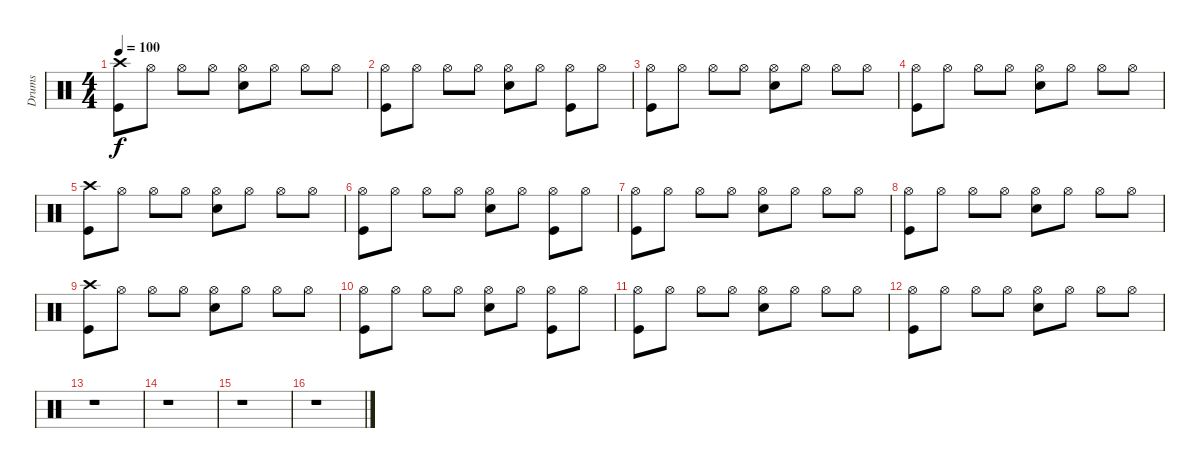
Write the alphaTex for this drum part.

\track ("Drums" "Drums") {instrument percussion}
\staff {score}
\articulation defaults
\ts (4 4)
\tempo 100
\clef neutral
\ks c
("Crash high (hit)" "Kick (hit)").8{dy f} "Hi-Hat (open)".8 "Hi-Hat (open)".8 "Hi-Hat (open)".8 ("Hi-Hat (open)" "Snare (hit) 2").8 "Hi-Hat (open)".8 "Hi-Hat (open)".8 "Hi-Hat (open)".8 |
("Hi-Hat (open)" "Kick (hit)").8 "Hi-Hat (open)".8 "Hi-Hat (open)".8 "Hi-Hat (open)".8 ("Hi-Hat (open)" "Snare (hit) 2").8 "Hi-Hat (open)".8 ("Hi-Hat (open)" "Kick (hit)").8 "Hi-Hat (open)".8 |
("Hi-Hat (open)" "Kick (hit)").8 "Hi-Hat (open)".8 "Hi-Hat (open)".8 "Hi-Hat (open)".8 ("Hi-Hat (open)" "Snare (hit) 2").8 "Hi-Hat (open)".8 "Hi-Hat (open)".8 "Hi-Hat (open)".8 |
("Hi-Hat (open)" "Kick (hit)").8 "Hi-Hat (open)".8 "Hi-Hat (open)".8 "Hi-Hat (open)".8 ("Hi-Hat (open)" "Snare (hit) 2").8 "Hi-Hat (open)".8 "Hi-Hat (open)".8 "Hi-Hat (open)".8 |
("Crash high (hit)" "Kick (hit)").8 "Hi-Hat (open)".8 "Hi-Hat (open)".8 "Hi-Hat (open)".8 ("Hi-Hat (open)" "Snare (hit) 2").8 "Hi-Hat (open)".8 "Hi-Hat (open)".8 "Hi-Hat (open)".8 |
("Hi-Hat (open)" "Kick (hit)").8 "Hi-Hat (open)".8 "Hi-Hat (open)".8 "Hi-Hat (open)".8 ("Hi-Hat (open)" "Snare (hit) 2").8 "Hi-Hat (open)".8 ("Hi-Hat (open)" "Kick (hit)").8 "Hi-Hat (open)".8 |
("Hi-Hat (open)" "Kick (hit)").8 "Hi-Hat (open)".8 "Hi-Hat (open)".8 "Hi-Hat (open)".8 ("Hi-Hat (open)" "Snare (hit) 2").8 "Hi-Hat (open)".8 "Hi-Hat (open)".8 "Hi-Hat (open)".8 |
("Hi-Hat (open)" "Kick (hit)").8 "Hi-Hat (open)".8 "Hi-Hat (open)".8 "Hi-Hat (open)".8 ("Hi-Hat (open)" "Snare (hit) 2").8 "Hi-Hat (open)".8 "Hi-Hat (open)".8 "Hi-Hat (open)".8 |
("Crash high (hit)" "Kick (hit)").8 "Hi-Hat (open)".8 "Hi-Hat (open)".8 "Hi-Hat (open)".8 ("Hi-Hat (open)" "Snare (hit) 2").8 "Hi-Hat (open)".8 "Hi-Hat (open)".8 "Hi-Hat (open)".8 |
("Hi-Hat (open)" "Kick (hit)").8 "Hi-Hat (open)".8 "Hi-Hat (open)".8 "Hi-Hat (open)".8 ("Hi-Hat (open)" "Snare (hit) 2").8 "Hi-Hat (open)".8 ("Hi-Hat (open)" "Kick (hit)").8 "Hi-Hat (open)".8 |
("Hi-Hat (open)" "Kick (hit)").8 "Hi-Hat (open)".8 "Hi-Hat (open)".8 "Hi-Hat (open)".8 ("Hi-Hat (open)" "Snare (hit) 2").8 "Hi-Hat (open)".8 "Hi-Hat (open)".8 "Hi-Hat (open)".8 |
("Hi-Hat (open)" "Kick (hit)").8 "Hi-Hat (open)".8 "Hi-Hat (open)".8 "Hi-Hat (open)".8 ("Hi-Hat (open)" "Snare (hit) 2").8 "Hi-Hat (open)".8 "Hi-Hat (open)".8 "Hi-Hat (open)".8 |
r.1 |
r.1 |
r.1 |
r.1
